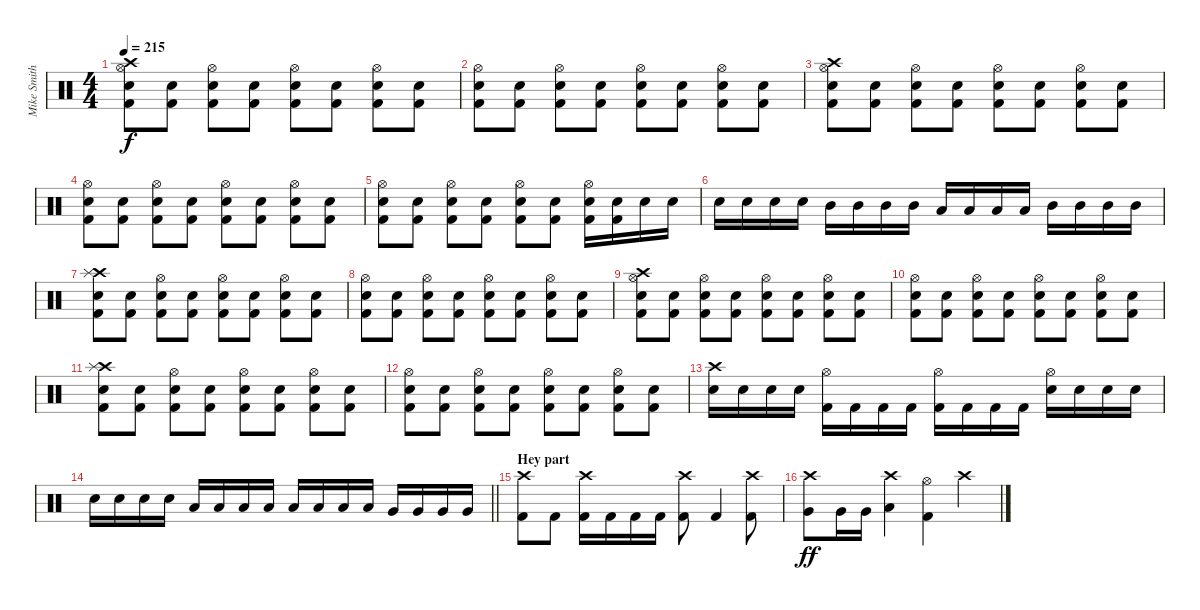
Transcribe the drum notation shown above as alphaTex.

\track ("Mike Smith (Suffocation)" "Mike Smith") {instrument percussion}
\staff {score}
\articulation defaults
\ts (4 4)
\tempo 215
\clef neutral
\ks c
("Crash high (hit)" "Hi-Hat (open)" "Snare (hit) 2" "Kick (hit) 2").8{dy f} ("Snare (hit) 2" "Kick (hit) 2").8 ("Hi-Hat (open)" "Snare (hit) 2" "Kick (hit) 2").8 ("Snare (hit) 2" "Kick (hit) 2").8 ("Hi-Hat (open)" "Snare (hit) 2" "Kick (hit) 2").8 ("Snare (hit) 2" "Kick (hit) 2").8 ("Hi-Hat (open)" "Snare (hit) 2" "Kick (hit) 2").8 ("Snare (hit) 2" "Kick (hit) 2").8 |
("Hi-Hat (open)" "Snare (hit) 2" "Kick (hit) 2").8 ("Snare (hit) 2" "Kick (hit) 2").8 ("Hi-Hat (open)" "Snare (hit) 2" "Kick (hit) 2").8 ("Snare (hit) 2" "Kick (hit) 2").8 ("Hi-Hat (open)" "Snare (hit) 2" "Kick (hit) 2").8 ("Snare (hit) 2" "Kick (hit) 2").8 ("Hi-Hat (open)" "Snare (hit) 2" "Kick (hit) 2").8 ("Snare (hit) 2" "Kick (hit) 2").8 |
("Crash high (hit)" "Hi-Hat (open)" "Snare (hit) 2" "Kick (hit) 2").8 ("Snare (hit) 2" "Kick (hit) 2").8 ("Hi-Hat (open)" "Snare (hit) 2" "Kick (hit) 2").8 ("Snare (hit) 2" "Kick (hit) 2").8 ("Hi-Hat (open)" "Snare (hit) 2" "Kick (hit) 2").8 ("Snare (hit) 2" "Kick (hit) 2").8 ("Hi-Hat (open)" "Snare (hit) 2" "Kick (hit) 2").8 ("Snare (hit) 2" "Kick (hit) 2").8 |
("Hi-Hat (open)" "Snare (hit) 2" "Kick (hit) 2").8 ("Snare (hit) 2" "Kick (hit) 2").8 ("Hi-Hat (open)" "Snare (hit) 2" "Kick (hit) 2").8 ("Snare (hit) 2" "Kick (hit) 2").8 ("Hi-Hat (open)" "Snare (hit) 2" "Kick (hit) 2").8 ("Snare (hit) 2" "Kick (hit) 2").8 ("Hi-Hat (open)" "Snare (hit) 2" "Kick (hit) 2").8 ("Snare (hit) 2" "Kick (hit) 2").8 |
("Hi-Hat (open)" "Snare (hit) 2" "Kick (hit) 2").8 ("Snare (hit) 2" "Kick (hit) 2").8 ("Hi-Hat (open)" "Snare (hit) 2" "Kick (hit) 2").8 ("Snare (hit) 2" "Kick (hit) 2").8 ("Hi-Hat (open)" "Snare (hit) 2" "Kick (hit) 2").8 ("Snare (hit) 2" "Kick (hit) 2").8 ("Hi-Hat (open)" "Snare (hit) 2" "Kick (hit) 2").16 ("Snare (hit) 2" "Kick (hit) 2").16 "Snare (hit) 2".16 "Snare (hit) 2".16 |
"Snare (hit) 2".16 "Snare (hit) 2".16 "Snare (hit) 2".16 "Snare (hit) 2".16 "Mid Tom (hit)".16 "Mid Tom (hit)".16 "Mid Tom (hit)".16 "Mid Tom (hit)".16 "Low Tom (hit)".16 "Low Tom (hit)".16 "Low Tom (hit)".16 "Low Tom (hit)".16 "Mid Tom (hit)".16 "Mid Tom (hit)".16 "Mid Tom (hit)".16 "Mid Tom (hit)".16 |
("Crash high (hit)" "Splash (hit)" "Snare (hit) 2" "Kick (hit) 2").8 ("Snare (hit) 2" "Kick (hit) 2").8 ("Hi-Hat (open)" "Snare (hit) 2" "Kick (hit) 2").8 ("Snare (hit) 2" "Kick (hit) 2").8 ("Hi-Hat (open)" "Snare (hit) 2" "Kick (hit) 2").8 ("Snare (hit) 2" "Kick (hit) 2").8 ("Hi-Hat (open)" "Snare (hit) 2" "Kick (hit) 2").8 ("Snare (hit) 2" "Kick (hit) 2").8 |
("Hi-Hat (open)" "Snare (hit) 2" "Kick (hit) 2").8 ("Snare (hit) 2" "Kick (hit) 2").8 ("Hi-Hat (open)" "Snare (hit) 2" "Kick (hit) 2").8 ("Snare (hit) 2" "Kick (hit) 2").8 ("Hi-Hat (open)" "Snare (hit) 2" "Kick (hit) 2").8 ("Snare (hit) 2" "Kick (hit) 2").8 ("Hi-Hat (open)" "Snare (hit) 2" "Kick (hit) 2").8 ("Snare (hit) 2" "Kick (hit) 2").8 |
("Crash high (hit)" "Hi-Hat (open)" "Snare (hit) 2" "Kick (hit) 2").8 ("Snare (hit) 2" "Kick (hit) 2").8 ("Hi-Hat (open)" "Snare (hit) 2" "Kick (hit) 2").8 ("Snare (hit) 2" "Kick (hit) 2").8 ("Hi-Hat (open)" "Snare (hit) 2" "Kick (hit) 2").8 ("Snare (hit) 2" "Kick (hit) 2").8 ("Hi-Hat (open)" "Snare (hit) 2" "Kick (hit) 2").8 ("Snare (hit) 2" "Kick (hit) 2").8 |
("Hi-Hat (open)" "Snare (hit) 2" "Kick (hit) 2").8 ("Snare (hit) 2" "Kick (hit) 2").8 ("Hi-Hat (open)" "Snare (hit) 2" "Kick (hit) 2").8 ("Snare (hit) 2" "Kick (hit) 2").8 ("Hi-Hat (open)" "Snare (hit) 2" "Kick (hit) 2").8 ("Snare (hit) 2" "Kick (hit) 2").8 ("Hi-Hat (open)" "Snare (hit) 2" "Kick (hit) 2").8 ("Snare (hit) 2" "Kick (hit) 2").8 |
("Crash high (hit)" "Splash (hit)" "Snare (hit) 2" "Kick (hit) 2").8 ("Snare (hit) 2" "Kick (hit) 2").8 ("Hi-Hat (open)" "Snare (hit) 2" "Kick (hit) 2").8 ("Snare (hit) 2" "Kick (hit) 2").8 ("Hi-Hat (open)" "Snare (hit) 2" "Kick (hit) 2").8 ("Snare (hit) 2" "Kick (hit) 2").8 ("Hi-Hat (open)" "Snare (hit) 2" "Kick (hit) 2").8 ("Snare (hit) 2" "Kick (hit) 2").8 |
("Hi-Hat (open)" "Snare (hit) 2" "Kick (hit) 2").8 ("Snare (hit) 2" "Kick (hit) 2").8 ("Hi-Hat (open)" "Snare (hit) 2" "Kick (hit) 2").8 ("Snare (hit) 2" "Kick (hit) 2").8 ("Hi-Hat (open)" "Snare (hit) 2" "Kick (hit) 2").8 ("Snare (hit) 2" "Kick (hit) 2").8 ("Hi-Hat (open)" "Snare (hit) 2" "Kick (hit) 2").8 ("Snare (hit) 2" "Kick (hit) 2").8 |
("Crash high (hit)" "Snare (hit) 2").16 "Snare (hit) 2".16 "Snare (hit) 2".16 "Snare (hit) 2".16 ("Hi-Hat (open)" "Kick (hit) 2").16 "Kick (hit) 2".16 "Kick (hit) 2".16 "Kick (hit) 2".16 ("Hi-Hat (open)" "Kick (hit) 2").16 "Kick (hit) 2".16 "Kick (hit) 2".16 "Kick (hit) 2".16 ("Hi-Hat (open)" "Snare (hit) 2").16 "Snare (hit) 2".16 "Snare (hit) 2".16 "Snare (hit) 2".16 |
\barLineRight lightlight "Snare (hit) 2".16 "Snare (hit) 2".16 "Snare (hit) 2".16 "Snare (hit) 2".16 "Low Tom (hit)".16 "Low Tom (hit)".16 "Low Tom (hit)".16 "Low Tom (hit)".16 "Low Tom (hit)".16 "Low Tom (hit)".16 "Low Tom (hit)".16 "Low Tom (hit)".16 "Very Low Tom (hit)".16 "Very Low Tom (hit)".16 "Very Low Tom (hit)".16 "Very Low Tom (hit)".16
|
\section ("" "Hey part")
("Crash high (hit)" "Kick (hit) 2").8{volume 16} "Kick (hit) 2".8 ("Crash high (hit)" "Kick (hit) 2").16 "Kick (hit) 2".16 "Kick (hit) 2".16 "Kick (hit) 2".16 ("Crash high (hit)" "Kick (hit) 2").8 "Kick (hit) 2".4 ("Crash high (hit)" "Kick (hit) 2").8 |
("Crash high (hit)" "Very Low Tom (hit)").8{dy ff} "Very Low Tom (hit)".16 "Very Low Tom (hit)".16 ("Crash high (hit)" "Low Floor Tom (hit)").4 ("Hi-Hat (open)" "Kick (hit) 2").4 "Crash high (hit)".4
